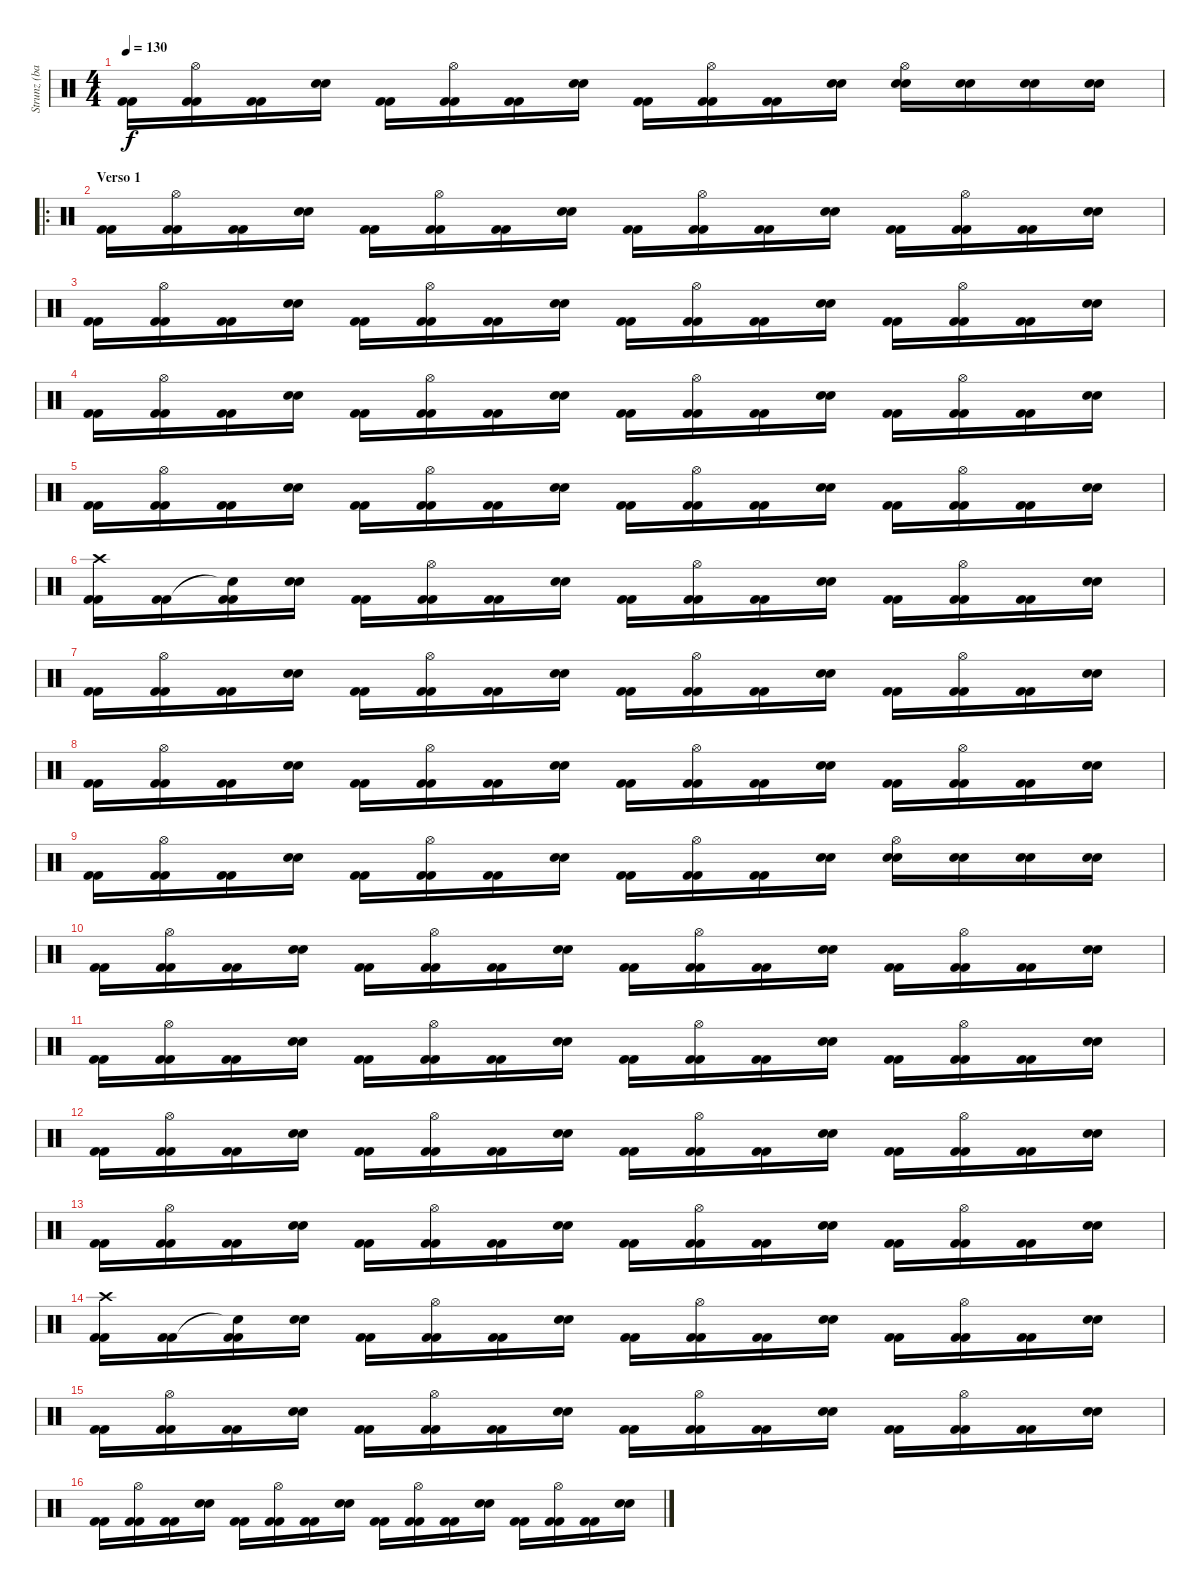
\track ("Strunz (bateria)" "Strunz (ba") {instrument percussion}
\staff {score}
\articulation defaults
\ts (4 4)
\tempo 130
\clef neutral
\ks c
("Kick (hit) 2" "Kick (hit) 2").16{dy f} ("Hi-Hat (open)" "Kick (hit) 2" "Kick (hit) 2").16 ("Kick (hit) 2" "Kick (hit) 2").16 ("Snare (hit) 2" "Snare (hit) 2").16 ("Kick (hit) 2" "Kick (hit) 2").16 ("Hi-Hat (open)" "Kick (hit) 2" "Kick (hit) 2").16 ("Kick (hit) 2" "Kick (hit) 2").16 ("Snare (hit) 2" "Snare (hit) 2").16 ("Kick (hit) 2" "Kick (hit) 2").16 ("Hi-Hat (open)" "Kick (hit) 2" "Kick (hit) 2").16 ("Kick (hit) 2" "Kick (hit) 2").16 ("Snare (hit) 2" "Snare (hit) 2").16 ("Hi-Hat (open)" "Snare (hit) 2" "Snare (hit) 2").16 ("Snare (hit) 2" "Snare (hit) 2").16 ("Snare (hit) 2" "Snare (hit) 2").16 ("Snare (hit) 2" "Snare (hit) 2").16 |
\ro
\section ("" "Verso 1")
("Kick (hit) 2" "Kick (hit) 2").16 ("Hi-Hat (open)" "Kick (hit) 2" "Kick (hit) 2").16 ("Kick (hit) 2" "Kick (hit) 2").16 ("Snare (hit) 2" "Snare (hit) 2").16 ("Kick (hit) 2" "Kick (hit) 2").16 ("Hi-Hat (open)" "Kick (hit) 2" "Kick (hit) 2").16 ("Kick (hit) 2" "Kick (hit) 2").16 ("Snare (hit) 2" "Snare (hit) 2").16 ("Kick (hit) 2" "Kick (hit) 2").16 ("Hi-Hat (open)" "Kick (hit) 2" "Kick (hit) 2").16 ("Kick (hit) 2" "Kick (hit) 2").16 ("Snare (hit) 2" "Snare (hit) 2").16 ("Kick (hit) 2" "Kick (hit) 2").16 ("Hi-Hat (open)" "Kick (hit) 2" "Kick (hit) 2").16 ("Kick (hit) 2" "Kick (hit) 2").16 ("Snare (hit) 2" "Snare (hit) 2").16 |
("Kick (hit) 2" "Kick (hit) 2").16 ("Hi-Hat (open)" "Kick (hit) 2" "Kick (hit) 2").16 ("Kick (hit) 2" "Kick (hit) 2").16 ("Snare (hit) 2" "Snare (hit) 2").16 ("Kick (hit) 2" "Kick (hit) 2").16 ("Hi-Hat (open)" "Kick (hit) 2" "Kick (hit) 2").16 ("Kick (hit) 2" "Kick (hit) 2").16 ("Snare (hit) 2" "Snare (hit) 2").16 ("Kick (hit) 2" "Kick (hit) 2").16 ("Hi-Hat (open)" "Kick (hit) 2" "Kick (hit) 2").16 ("Kick (hit) 2" "Kick (hit) 2").16 ("Snare (hit) 2" "Snare (hit) 2").16 ("Kick (hit) 2" "Kick (hit) 2").16 ("Hi-Hat (open)" "Kick (hit) 2" "Kick (hit) 2").16 ("Kick (hit) 2" "Kick (hit) 2").16 ("Snare (hit) 2" "Snare (hit) 2").16 |
("Kick (hit) 2" "Kick (hit) 2").16 ("Hi-Hat (open)" "Kick (hit) 2" "Kick (hit) 2").16 ("Kick (hit) 2" "Kick (hit) 2").16 ("Snare (hit) 2" "Snare (hit) 2").16 ("Kick (hit) 2" "Kick (hit) 2").16 ("Hi-Hat (open)" "Kick (hit) 2" "Kick (hit) 2").16 ("Kick (hit) 2" "Kick (hit) 2").16 ("Snare (hit) 2" "Snare (hit) 2").16 ("Kick (hit) 2" "Kick (hit) 2").16 ("Hi-Hat (open)" "Kick (hit) 2" "Kick (hit) 2").16 ("Kick (hit) 2" "Kick (hit) 2").16 ("Snare (hit) 2" "Snare (hit) 2").16 ("Kick (hit) 2" "Kick (hit) 2").16 ("Hi-Hat (open)" "Kick (hit) 2" "Kick (hit) 2").16 ("Kick (hit) 2" "Kick (hit) 2").16 ("Snare (hit) 2" "Snare (hit) 2").16 |
("Kick (hit) 2" "Kick (hit) 2").16 ("Hi-Hat (open)" "Kick (hit) 2" "Kick (hit) 2").16 ("Kick (hit) 2" "Kick (hit) 2").16 ("Snare (hit) 2" "Snare (hit) 2").16 ("Kick (hit) 2" "Kick (hit) 2").16 ("Hi-Hat (open)" "Kick (hit) 2" "Kick (hit) 2").16 ("Kick (hit) 2" "Kick (hit) 2").16 ("Snare (hit) 2" "Snare (hit) 2").16 ("Kick (hit) 2" "Kick (hit) 2").16 ("Hi-Hat (open)" "Kick (hit) 2" "Kick (hit) 2").16 ("Kick (hit) 2" "Kick (hit) 2").16 ("Snare (hit) 2" "Snare (hit) 2").16 ("Kick (hit) 2" "Kick (hit) 2").16 ("Hi-Hat (open)" "Kick (hit) 2" "Kick (hit) 2").16 ("Kick (hit) 2" "Kick (hit) 2").16 ("Snare (hit) 2" "Snare (hit) 2").16 |
("Crash high (hit)" "Kick (hit) 2" "Kick (hit) 2").16 ("Kick (hit) 2" "Kick (hit) 2").16 ("Snare (hit)"{t} "Kick (hit) 2" "Kick (hit) 2").16 ("Snare (hit) 2" "Snare (hit) 2").16 ("Kick (hit) 2" "Kick (hit) 2").16 ("Hi-Hat (open)" "Kick (hit) 2" "Kick (hit) 2").16 ("Kick (hit) 2" "Kick (hit) 2").16 ("Snare (hit) 2" "Snare (hit) 2").16 ("Kick (hit) 2" "Kick (hit) 2").16 ("Hi-Hat (open)" "Kick (hit) 2" "Kick (hit) 2").16 ("Kick (hit) 2" "Kick (hit) 2").16 ("Snare (hit) 2" "Snare (hit) 2").16 ("Kick (hit) 2" "Kick (hit) 2").16 ("Hi-Hat (open)" "Kick (hit) 2" "Kick (hit) 2").16 ("Kick (hit) 2" "Kick (hit) 2").16 ("Snare (hit) 2" "Snare (hit) 2").16 |
("Kick (hit) 2" "Kick (hit) 2").16 ("Hi-Hat (open)" "Kick (hit) 2" "Kick (hit) 2").16 ("Kick (hit) 2" "Kick (hit) 2").16 ("Snare (hit) 2" "Snare (hit) 2").16 ("Kick (hit) 2" "Kick (hit) 2").16 ("Hi-Hat (open)" "Kick (hit) 2" "Kick (hit) 2").16 ("Kick (hit) 2" "Kick (hit) 2").16 ("Snare (hit) 2" "Snare (hit) 2").16 ("Kick (hit) 2" "Kick (hit) 2").16 ("Hi-Hat (open)" "Kick (hit) 2" "Kick (hit) 2").16 ("Kick (hit) 2" "Kick (hit) 2").16 ("Snare (hit) 2" "Snare (hit) 2").16 ("Kick (hit) 2" "Kick (hit) 2").16 ("Hi-Hat (open)" "Kick (hit) 2" "Kick (hit) 2").16 ("Kick (hit) 2" "Kick (hit) 2").16 ("Snare (hit) 2" "Snare (hit) 2").16 |
("Kick (hit) 2" "Kick (hit) 2").16 ("Hi-Hat (open)" "Kick (hit) 2" "Kick (hit) 2").16 ("Kick (hit) 2" "Kick (hit) 2").16 ("Snare (hit) 2" "Snare (hit) 2").16 ("Kick (hit) 2" "Kick (hit) 2").16 ("Hi-Hat (open)" "Kick (hit) 2" "Kick (hit) 2").16 ("Kick (hit) 2" "Kick (hit) 2").16 ("Snare (hit) 2" "Snare (hit) 2").16 ("Kick (hit) 2" "Kick (hit) 2").16 ("Hi-Hat (open)" "Kick (hit) 2" "Kick (hit) 2").16 ("Kick (hit) 2" "Kick (hit) 2").16 ("Snare (hit) 2" "Snare (hit) 2").16 ("Kick (hit) 2" "Kick (hit) 2").16 ("Hi-Hat (open)" "Kick (hit) 2" "Kick (hit) 2").16 ("Kick (hit) 2" "Kick (hit) 2").16 ("Snare (hit) 2" "Snare (hit) 2").16 |
("Kick (hit) 2" "Kick (hit) 2").16 ("Hi-Hat (open)" "Kick (hit) 2" "Kick (hit) 2").16 ("Kick (hit) 2" "Kick (hit) 2").16 ("Snare (hit) 2" "Snare (hit) 2").16 ("Kick (hit) 2" "Kick (hit) 2").16 ("Hi-Hat (open)" "Kick (hit) 2" "Kick (hit) 2").16 ("Kick (hit) 2" "Kick (hit) 2").16 ("Snare (hit) 2" "Snare (hit) 2").16 ("Kick (hit) 2" "Kick (hit) 2").16 ("Hi-Hat (open)" "Kick (hit) 2" "Kick (hit) 2").16 ("Kick (hit) 2" "Kick (hit) 2").16 ("Snare (hit) 2" "Snare (hit) 2").16 ("Hi-Hat (open)" "Snare (hit) 2" "Snare (hit) 2").16 ("Snare (hit) 2" "Snare (hit) 2").16 ("Snare (hit) 2" "Snare (hit) 2").16 ("Snare (hit) 2" "Snare (hit) 2").16 |
("Kick (hit) 2" "Kick (hit) 2").16 ("Hi-Hat (open)" "Kick (hit) 2" "Kick (hit) 2").16 ("Kick (hit) 2" "Kick (hit) 2").16 ("Snare (hit) 2" "Snare (hit) 2").16 ("Kick (hit) 2" "Kick (hit) 2").16 ("Hi-Hat (open)" "Kick (hit) 2" "Kick (hit) 2").16 ("Kick (hit) 2" "Kick (hit) 2").16 ("Snare (hit) 2" "Snare (hit) 2").16 ("Kick (hit) 2" "Kick (hit) 2").16 ("Hi-Hat (open)" "Kick (hit) 2" "Kick (hit) 2").16 ("Kick (hit) 2" "Kick (hit) 2").16 ("Snare (hit) 2" "Snare (hit) 2").16 ("Kick (hit) 2" "Kick (hit) 2").16 ("Hi-Hat (open)" "Kick (hit) 2" "Kick (hit) 2").16 ("Kick (hit) 2" "Kick (hit) 2").16 ("Snare (hit) 2" "Snare (hit) 2").16 |
("Kick (hit) 2" "Kick (hit) 2").16 ("Hi-Hat (open)" "Kick (hit) 2" "Kick (hit) 2").16 ("Kick (hit) 2" "Kick (hit) 2").16 ("Snare (hit) 2" "Snare (hit) 2").16 ("Kick (hit) 2" "Kick (hit) 2").16 ("Hi-Hat (open)" "Kick (hit) 2" "Kick (hit) 2").16 ("Kick (hit) 2" "Kick (hit) 2").16 ("Snare (hit) 2" "Snare (hit) 2").16 ("Kick (hit) 2" "Kick (hit) 2").16 ("Hi-Hat (open)" "Kick (hit) 2" "Kick (hit) 2").16 ("Kick (hit) 2" "Kick (hit) 2").16 ("Snare (hit) 2" "Snare (hit) 2").16 ("Kick (hit) 2" "Kick (hit) 2").16 ("Hi-Hat (open)" "Kick (hit) 2" "Kick (hit) 2").16 ("Kick (hit) 2" "Kick (hit) 2").16 ("Snare (hit) 2" "Snare (hit) 2").16 |
("Kick (hit) 2" "Kick (hit) 2").16 ("Hi-Hat (open)" "Kick (hit) 2" "Kick (hit) 2").16 ("Kick (hit) 2" "Kick (hit) 2").16 ("Snare (hit) 2" "Snare (hit) 2").16 ("Kick (hit) 2" "Kick (hit) 2").16 ("Hi-Hat (open)" "Kick (hit) 2" "Kick (hit) 2").16 ("Kick (hit) 2" "Kick (hit) 2").16 ("Snare (hit) 2" "Snare (hit) 2").16 ("Kick (hit) 2" "Kick (hit) 2").16 ("Hi-Hat (open)" "Kick (hit) 2" "Kick (hit) 2").16 ("Kick (hit) 2" "Kick (hit) 2").16 ("Snare (hit) 2" "Snare (hit) 2").16 ("Kick (hit) 2" "Kick (hit) 2").16 ("Hi-Hat (open)" "Kick (hit) 2" "Kick (hit) 2").16 ("Kick (hit) 2" "Kick (hit) 2").16 ("Snare (hit) 2" "Snare (hit) 2").16 |
("Kick (hit) 2" "Kick (hit) 2").16 ("Hi-Hat (open)" "Kick (hit) 2" "Kick (hit) 2").16 ("Kick (hit) 2" "Kick (hit) 2").16 ("Snare (hit) 2" "Snare (hit) 2").16 ("Kick (hit) 2" "Kick (hit) 2").16 ("Hi-Hat (open)" "Kick (hit) 2" "Kick (hit) 2").16 ("Kick (hit) 2" "Kick (hit) 2").16 ("Snare (hit) 2" "Snare (hit) 2").16 ("Kick (hit) 2" "Kick (hit) 2").16 ("Hi-Hat (open)" "Kick (hit) 2" "Kick (hit) 2").16 ("Kick (hit) 2" "Kick (hit) 2").16 ("Snare (hit) 2" "Snare (hit) 2").16 ("Kick (hit) 2" "Kick (hit) 2").16 ("Hi-Hat (open)" "Kick (hit) 2" "Kick (hit) 2").16 ("Kick (hit) 2" "Kick (hit) 2").16 ("Snare (hit) 2" "Snare (hit) 2").16 |
("Crash high (hit)" "Kick (hit) 2" "Kick (hit) 2").16 ("Kick (hit) 2" "Kick (hit) 2").16 ("Snare (hit)"{t} "Kick (hit) 2" "Kick (hit) 2").16 ("Snare (hit) 2" "Snare (hit) 2").16 ("Kick (hit) 2" "Kick (hit) 2").16 ("Hi-Hat (open)" "Kick (hit) 2" "Kick (hit) 2").16 ("Kick (hit) 2" "Kick (hit) 2").16 ("Snare (hit) 2" "Snare (hit) 2").16 ("Kick (hit) 2" "Kick (hit) 2").16 ("Hi-Hat (open)" "Kick (hit) 2" "Kick (hit) 2").16 ("Kick (hit) 2" "Kick (hit) 2").16 ("Snare (hit) 2" "Snare (hit) 2").16 ("Kick (hit) 2" "Kick (hit) 2").16 ("Hi-Hat (open)" "Kick (hit) 2" "Kick (hit) 2").16 ("Kick (hit) 2" "Kick (hit) 2").16 ("Snare (hit) 2" "Snare (hit) 2").16 |
("Kick (hit) 2" "Kick (hit) 2").16 ("Hi-Hat (open)" "Kick (hit) 2" "Kick (hit) 2").16 ("Kick (hit) 2" "Kick (hit) 2").16 ("Snare (hit) 2" "Snare (hit) 2").16 ("Kick (hit) 2" "Kick (hit) 2").16 ("Hi-Hat (open)" "Kick (hit) 2" "Kick (hit) 2").16 ("Kick (hit) 2" "Kick (hit) 2").16 ("Snare (hit) 2" "Snare (hit) 2").16 ("Kick (hit) 2" "Kick (hit) 2").16 ("Hi-Hat (open)" "Kick (hit) 2" "Kick (hit) 2").16 ("Kick (hit) 2" "Kick (hit) 2").16 ("Snare (hit) 2" "Snare (hit) 2").16 ("Kick (hit) 2" "Kick (hit) 2").16 ("Hi-Hat (open)" "Kick (hit) 2" "Kick (hit) 2").16 ("Kick (hit) 2" "Kick (hit) 2").16 ("Snare (hit) 2" "Snare (hit) 2").16 |
("Kick (hit) 2" "Kick (hit) 2").16 ("Hi-Hat (open)" "Kick (hit) 2" "Kick (hit) 2").16 ("Kick (hit) 2" "Kick (hit) 2").16 ("Snare (hit) 2" "Snare (hit) 2").16 ("Kick (hit) 2" "Kick (hit) 2").16 ("Hi-Hat (open)" "Kick (hit) 2" "Kick (hit) 2").16 ("Kick (hit) 2" "Kick (hit) 2").16 ("Snare (hit) 2" "Snare (hit) 2").16 ("Kick (hit) 2" "Kick (hit) 2").16 ("Hi-Hat (open)" "Kick (hit) 2" "Kick (hit) 2").16 ("Kick (hit) 2" "Kick (hit) 2").16 ("Snare (hit) 2" "Snare (hit) 2").16 ("Kick (hit) 2" "Kick (hit) 2").16 ("Hi-Hat (open)" "Kick (hit) 2" "Kick (hit) 2").16 ("Kick (hit) 2" "Kick (hit) 2").16 ("Snare (hit) 2" "Snare (hit) 2").16
